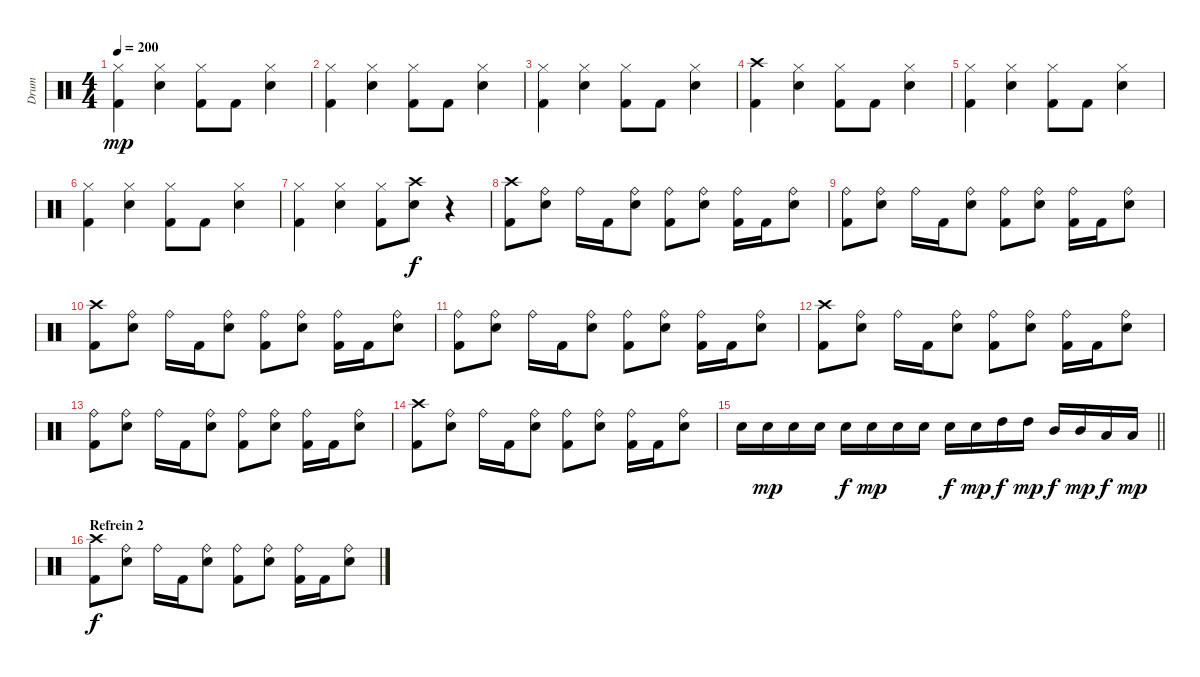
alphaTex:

\track ("Drum" "Drum") {instrument percussion}
\staff {score}
\articulation defaults
\ts (4 4)
\tempo 200
\clef neutral
\ks c
("Hi-Hat (closed)" "Kick (hit) 2").4{dy mp} ("Hi-Hat (closed)" "Snare (hit) 2").4 ("Hi-Hat (closed)" "Kick (hit) 2").8 "Kick (hit) 2".8 ("Hi-Hat (closed)" "Snare (hit) 2").4 |
("Hi-Hat (closed)" "Kick (hit) 2").4 ("Hi-Hat (closed)" "Snare (hit) 2").4 ("Hi-Hat (closed)" "Kick (hit) 2").8 "Kick (hit) 2".8 ("Hi-Hat (closed)" "Snare (hit) 2").4 |
("Hi-Hat (closed)" "Kick (hit) 2").4 ("Hi-Hat (closed)" "Snare (hit) 2").4 ("Hi-Hat (closed)" "Kick (hit) 2").8 "Kick (hit) 2".8 ("Hi-Hat (closed)" "Snare (hit) 2").4 |
("Crash high (hit)" "Kick (hit) 2").4 ("Hi-Hat (closed)" "Snare (hit) 2").4 ("Hi-Hat (closed)" "Kick (hit) 2").8 "Kick (hit) 2".8 ("Hi-Hat (closed)" "Snare (hit) 2").4 |
("Hi-Hat (closed)" "Kick (hit) 2").4 ("Hi-Hat (closed)" "Snare (hit) 2").4 ("Hi-Hat (closed)" "Kick (hit) 2").8 "Kick (hit) 2".8 ("Hi-Hat (closed)" "Snare (hit) 2").4 |
("Hi-Hat (closed)" "Kick (hit) 2").4 ("Hi-Hat (closed)" "Snare (hit) 2").4 ("Hi-Hat (closed)" "Kick (hit) 2").8 "Kick (hit) 2".8 ("Hi-Hat (closed)" "Snare (hit) 2").4 |
("Hi-Hat (closed)" "Kick (hit) 2").4 ("Hi-Hat (closed)" "Snare (hit) 2").4 ("Hi-Hat (closed)" "Kick (hit) 2").8 ("Crash high (hit)" "Snare (hit) 2").8{dy f} r.4 |
("Crash high (hit)" "Kick (hit) 2").8 ("Ride (bell)" "Snare (hit) 2").8 "Ride (bell)".16 "Kick (hit) 2".16 ("Ride (bell)" "Snare (hit) 2").8 ("Ride (bell)" "Kick (hit) 2").8 ("Ride (bell)" "Snare (hit) 2").8 ("Ride (bell)" "Kick (hit) 2").16 "Kick (hit) 2".16 ("Ride (bell)" "Snare (hit) 2").8 |
("Ride (bell)" "Kick (hit) 2").8 ("Ride (bell)" "Snare (hit) 2").8 "Ride (bell)".16 "Kick (hit) 2".16 ("Ride (bell)" "Snare (hit) 2").8 ("Ride (bell)" "Kick (hit) 2").8 ("Ride (bell)" "Snare (hit) 2").8 ("Ride (bell)" "Kick (hit) 2").16 "Kick (hit) 2".16 ("Ride (bell)" "Snare (hit) 2").8 |
("Crash high (hit)" "Kick (hit) 2").8 ("Ride (bell)" "Snare (hit) 2").8 "Ride (bell)".16 "Kick (hit) 2".16 ("Ride (bell)" "Snare (hit) 2").8 ("Ride (bell)" "Kick (hit) 2").8 ("Ride (bell)" "Snare (hit) 2").8 ("Ride (bell)" "Kick (hit) 2").16 "Kick (hit) 2".16 ("Ride (bell)" "Snare (hit) 2").8 |
("Ride (bell)" "Kick (hit) 2").8 ("Ride (bell)" "Snare (hit) 2").8 "Ride (bell)".16 "Kick (hit) 2".16 ("Ride (bell)" "Snare (hit) 2").8 ("Ride (bell)" "Kick (hit) 2").8 ("Ride (bell)" "Snare (hit) 2").8 ("Ride (bell)" "Kick (hit) 2").16 "Kick (hit) 2".16 ("Ride (bell)" "Snare (hit) 2").8 |
("Crash high (hit)" "Kick (hit) 2").8 ("Ride (bell)" "Snare (hit) 2").8 "Ride (bell)".16 "Kick (hit) 2".16 ("Ride (bell)" "Snare (hit) 2").8 ("Ride (bell)" "Kick (hit) 2").8 ("Ride (bell)" "Snare (hit) 2").8 ("Ride (bell)" "Kick (hit) 2").16 "Kick (hit) 2".16 ("Ride (bell)" "Snare (hit) 2").8 |
("Ride (bell)" "Kick (hit) 2").8 ("Ride (bell)" "Snare (hit) 2").8 "Ride (bell)".16 "Kick (hit) 2".16 ("Ride (bell)" "Snare (hit) 2").8 ("Ride (bell)" "Kick (hit) 2").8 ("Ride (bell)" "Snare (hit) 2").8 ("Ride (bell)" "Kick (hit) 2").16 "Kick (hit) 2".16 ("Ride (bell)" "Snare (hit) 2").8 |
("Crash high (hit)" "Kick (hit) 2").8 ("Ride (bell)" "Snare (hit) 2").8 "Ride (bell)".16 "Kick (hit) 2".16 ("Ride (bell)" "Snare (hit) 2").8 ("Ride (bell)" "Kick (hit) 2").8 ("Ride (bell)" "Snare (hit) 2").8 ("Ride (bell)" "Kick (hit) 2").16 "Kick (hit) 2".16 ("Ride (bell)" "Snare (hit) 2").8 |
\barLineRight lightlight "Snare (hit) 2".16 "Snare (hit) 2".16{dy mp} "Snare (hit) 2".16 "Snare (hit) 2".16 "Snare (hit) 2".16{dy f} "Snare (hit) 2".16{dy mp} "Snare (hit) 2".16 "Snare (hit) 2".16 "Snare (hit) 2".16{dy f} "Snare (hit) 2".16{dy mp} "High Tom (hit)".16{dy f} "High Tom (hit)".16{dy mp} "Mid Tom (hit)".16{dy f} "Mid Tom (hit)".16{dy mp} "Low Tom (hit)".16{dy f} "Low Tom (hit)".16{dy mp}
|
\section ("" "Refrein 2")
("Crash high (hit)" "Kick (hit) 2").8{dy f} ("Ride (bell)" "Snare (hit) 2").8 "Ride (bell)".16 "Kick (hit) 2".16 ("Ride (bell)" "Snare (hit) 2").8 ("Ride (bell)" "Kick (hit) 2").8 ("Ride (bell)" "Snare (hit) 2").8 ("Ride (bell)" "Kick (hit) 2").16 "Kick (hit) 2".16 ("Ride (bell)" "Snare (hit) 2").8
